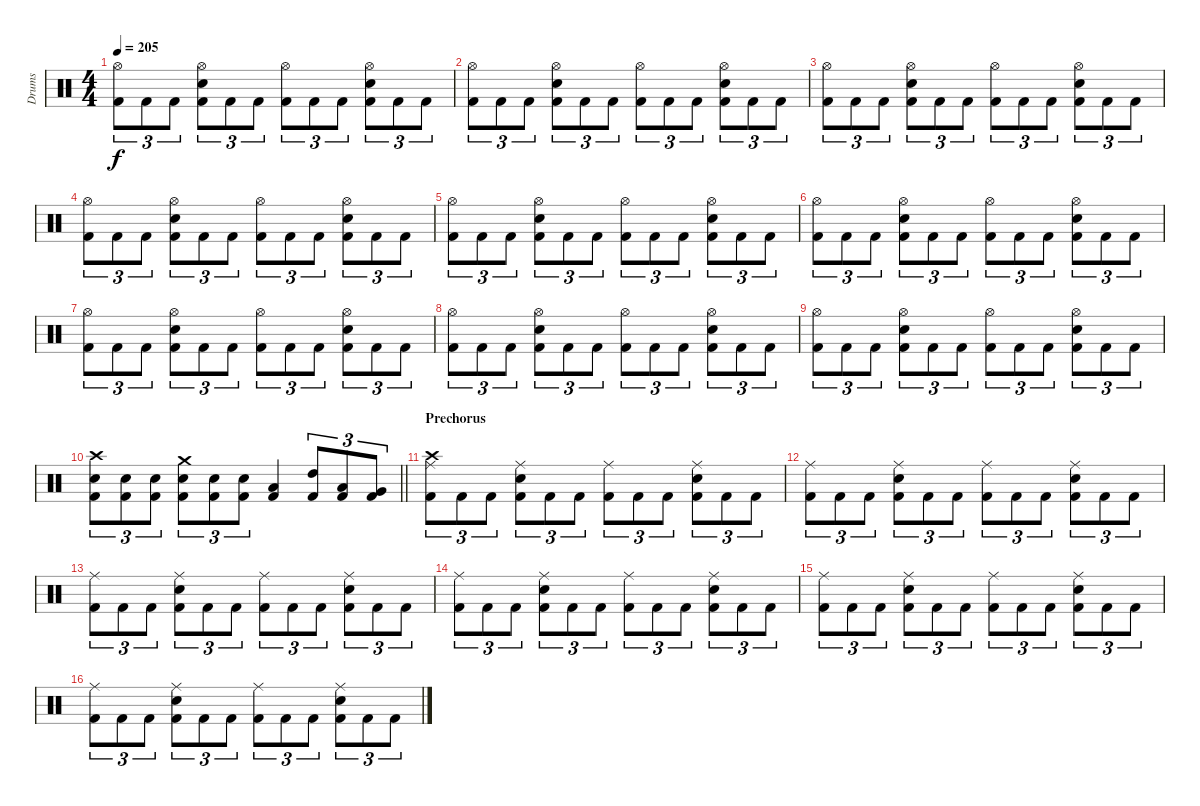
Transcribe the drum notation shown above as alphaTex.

\track ("Drums" "Drums") {instrument percussion}
\staff {score}
\articulation defaults
\ts (4 4)
\tempo 205
\clef neutral
\ks c
("Hi-Hat (open)" "Kick (hit) 2").8{tu (3 2) dy f} "Kick (hit) 2".8{tu (3 2)} "Kick (hit) 2".8{tu (3 2)} ("Hi-Hat (open)" "Snare (hit) 2" "Kick (hit) 2").8{tu (3 2)} "Kick (hit) 2".8{tu (3 2)} "Kick (hit) 2".8{tu (3 2)} ("Hi-Hat (open)" "Kick (hit) 2").8{tu (3 2)} "Kick (hit) 2".8{tu (3 2)} "Kick (hit) 2".8{tu (3 2)} ("Hi-Hat (open)" "Snare (hit) 2" "Kick (hit) 2").8{tu (3 2)} "Kick (hit) 2".8{tu (3 2)} "Kick (hit) 2".8{tu (3 2)} |
("Hi-Hat (open)" "Kick (hit) 2").8{tu (3 2)} "Kick (hit) 2".8{tu (3 2)} "Kick (hit) 2".8{tu (3 2)} ("Hi-Hat (open)" "Snare (hit) 2" "Kick (hit) 2").8{tu (3 2)} "Kick (hit) 2".8{tu (3 2)} "Kick (hit) 2".8{tu (3 2)} ("Hi-Hat (open)" "Kick (hit) 2").8{tu (3 2)} "Kick (hit) 2".8{tu (3 2)} "Kick (hit) 2".8{tu (3 2)} ("Hi-Hat (open)" "Snare (hit) 2" "Kick (hit) 2").8{tu (3 2)} "Kick (hit) 2".8{tu (3 2)} "Kick (hit) 2".8{tu (3 2)} |
("Hi-Hat (open)" "Kick (hit) 2").8{tu (3 2)} "Kick (hit) 2".8{tu (3 2)} "Kick (hit) 2".8{tu (3 2)} ("Hi-Hat (open)" "Snare (hit) 2" "Kick (hit) 2").8{tu (3 2)} "Kick (hit) 2".8{tu (3 2)} "Kick (hit) 2".8{tu (3 2)} ("Hi-Hat (open)" "Kick (hit) 2").8{tu (3 2)} "Kick (hit) 2".8{tu (3 2)} "Kick (hit) 2".8{tu (3 2)} ("Hi-Hat (open)" "Snare (hit) 2" "Kick (hit) 2").8{tu (3 2)} "Kick (hit) 2".8{tu (3 2)} "Kick (hit) 2".8{tu (3 2)} |
("Hi-Hat (open)" "Kick (hit) 2").8{tu (3 2)} "Kick (hit) 2".8{tu (3 2)} "Kick (hit) 2".8{tu (3 2)} ("Hi-Hat (open)" "Snare (hit) 2" "Kick (hit) 2").8{tu (3 2)} "Kick (hit) 2".8{tu (3 2)} "Kick (hit) 2".8{tu (3 2)} ("Hi-Hat (open)" "Kick (hit) 2").8{tu (3 2)} "Kick (hit) 2".8{tu (3 2)} "Kick (hit) 2".8{tu (3 2)} ("Hi-Hat (open)" "Snare (hit) 2" "Kick (hit) 2").8{tu (3 2)} "Kick (hit) 2".8{tu (3 2)} "Kick (hit) 2".8{tu (3 2)} |
("Hi-Hat (open)" "Kick (hit) 2").8{tu (3 2)} "Kick (hit) 2".8{tu (3 2)} "Kick (hit) 2".8{tu (3 2)} ("Hi-Hat (open)" "Snare (hit) 2" "Kick (hit) 2").8{tu (3 2)} "Kick (hit) 2".8{tu (3 2)} "Kick (hit) 2".8{tu (3 2)} ("Hi-Hat (open)" "Kick (hit) 2").8{tu (3 2)} "Kick (hit) 2".8{tu (3 2)} "Kick (hit) 2".8{tu (3 2)} ("Hi-Hat (open)" "Snare (hit) 2" "Kick (hit) 2").8{tu (3 2)} "Kick (hit) 2".8{tu (3 2)} "Kick (hit) 2".8{tu (3 2)} |
("Hi-Hat (open)" "Kick (hit) 2").8{tu (3 2)} "Kick (hit) 2".8{tu (3 2)} "Kick (hit) 2".8{tu (3 2)} ("Hi-Hat (open)" "Snare (hit) 2" "Kick (hit) 2").8{tu (3 2)} "Kick (hit) 2".8{tu (3 2)} "Kick (hit) 2".8{tu (3 2)} ("Hi-Hat (open)" "Kick (hit) 2").8{tu (3 2)} "Kick (hit) 2".8{tu (3 2)} "Kick (hit) 2".8{tu (3 2)} ("Hi-Hat (open)" "Snare (hit) 2" "Kick (hit) 2").8{tu (3 2)} "Kick (hit) 2".8{tu (3 2)} "Kick (hit) 2".8{tu (3 2)} |
("Hi-Hat (open)" "Kick (hit) 2").8{tu (3 2)} "Kick (hit) 2".8{tu (3 2)} "Kick (hit) 2".8{tu (3 2)} ("Hi-Hat (open)" "Snare (hit) 2" "Kick (hit) 2").8{tu (3 2)} "Kick (hit) 2".8{tu (3 2)} "Kick (hit) 2".8{tu (3 2)} ("Hi-Hat (open)" "Kick (hit) 2").8{tu (3 2)} "Kick (hit) 2".8{tu (3 2)} "Kick (hit) 2".8{tu (3 2)} ("Hi-Hat (open)" "Snare (hit) 2" "Kick (hit) 2").8{tu (3 2)} "Kick (hit) 2".8{tu (3 2)} "Kick (hit) 2".8{tu (3 2)} |
("Hi-Hat (open)" "Kick (hit) 2").8{tu (3 2)} "Kick (hit) 2".8{tu (3 2)} "Kick (hit) 2".8{tu (3 2)} ("Hi-Hat (open)" "Snare (hit) 2" "Kick (hit) 2").8{tu (3 2)} "Kick (hit) 2".8{tu (3 2)} "Kick (hit) 2".8{tu (3 2)} ("Hi-Hat (open)" "Kick (hit) 2").8{tu (3 2)} "Kick (hit) 2".8{tu (3 2)} "Kick (hit) 2".8{tu (3 2)} ("Hi-Hat (open)" "Snare (hit) 2" "Kick (hit) 2").8{tu (3 2)} "Kick (hit) 2".8{tu (3 2)} "Kick (hit) 2".8{tu (3 2)} |
("Hi-Hat (open)" "Kick (hit) 2").8{tu (3 2)} "Kick (hit) 2".8{tu (3 2)} "Kick (hit) 2".8{tu (3 2)} ("Hi-Hat (open)" "Snare (hit) 2" "Kick (hit) 2").8{tu (3 2)} "Kick (hit) 2".8{tu (3 2)} "Kick (hit) 2".8{tu (3 2)} ("Hi-Hat (open)" "Kick (hit) 2").8{tu (3 2)} "Kick (hit) 2".8{tu (3 2)} "Kick (hit) 2".8{tu (3 2)} ("Hi-Hat (open)" "Snare (hit) 2" "Kick (hit) 2").8{tu (3 2)} "Kick (hit) 2".8{tu (3 2)} "Kick (hit) 2".8{tu (3 2)} |
\barLineRight lightlight
("Crash high (hit)" "Snare (hit) 2" "Kick (hit) 2").8{tu (3 2)} ("Snare (hit) 2" "Kick (hit) 2").8{tu (3 2)} ("Snare (hit) 2" "Kick (hit) 2").8{tu (3 2)} ("Crash medium (hit)" "Snare (hit) 2" "Kick (hit) 2").8{tu (3 2)} ("Snare (hit) 2" "Kick (hit) 2").8{tu (3 2)} ("Snare (hit) 2" "Kick (hit) 2").8{tu (3 2)} ("Low Floor Tom (hit)" "Kick (hit) 2").4 ("High Tom (hit)" "Kick (hit) 2").8{tu (3 2)} ("Low Tom (hit)" "Kick (hit) 2").8{tu (3 2)} ("Very Low Tom (hit)" "Kick (hit) 2").8{tu (3 2)} |
\section ("" "Prechorus")
("Crash high (hit)" "Ride (middle)" "Kick (hit) 2").8{tu (3 2)} "Kick (hit) 2".8{tu (3 2)} "Kick (hit) 2".8{tu (3 2)} ("Ride (middle)" "Snare (hit) 2" "Kick (hit) 2").8{tu (3 2)} "Kick (hit) 2".8{tu (3 2)} "Kick (hit) 2".8{tu (3 2)} ("Ride (middle)" "Kick (hit) 2").8{tu (3 2)} "Kick (hit) 2".8{tu (3 2)} "Kick (hit) 2".8{tu (3 2)} ("Ride (middle)" "Snare (hit) 2" "Kick (hit) 2").8{tu (3 2)} "Kick (hit) 2".8{tu (3 2)} "Kick (hit) 2".8{tu (3 2)} |
("Ride (middle)" "Kick (hit) 2").8{tu (3 2)} "Kick (hit) 2".8{tu (3 2)} "Kick (hit) 2".8{tu (3 2)} ("Ride (middle)" "Snare (hit) 2" "Kick (hit) 2").8{tu (3 2)} "Kick (hit) 2".8{tu (3 2)} "Kick (hit) 2".8{tu (3 2)} ("Ride (middle)" "Kick (hit) 2").8{tu (3 2)} "Kick (hit) 2".8{tu (3 2)} "Kick (hit) 2".8{tu (3 2)} ("Ride (middle)" "Snare (hit) 2" "Kick (hit) 2").8{tu (3 2)} "Kick (hit) 2".8{tu (3 2)} "Kick (hit) 2".8{tu (3 2)} |
("Ride (middle)" "Kick (hit) 2").8{tu (3 2)} "Kick (hit) 2".8{tu (3 2)} "Kick (hit) 2".8{tu (3 2)} ("Ride (middle)" "Snare (hit) 2" "Kick (hit) 2").8{tu (3 2)} "Kick (hit) 2".8{tu (3 2)} "Kick (hit) 2".8{tu (3 2)} ("Ride (middle)" "Kick (hit) 2").8{tu (3 2)} "Kick (hit) 2".8{tu (3 2)} "Kick (hit) 2".8{tu (3 2)} ("Ride (middle)" "Snare (hit) 2" "Kick (hit) 2").8{tu (3 2)} "Kick (hit) 2".8{tu (3 2)} "Kick (hit) 2".8{tu (3 2)} |
("Ride (middle)" "Kick (hit) 2").8{tu (3 2)} "Kick (hit) 2".8{tu (3 2)} "Kick (hit) 2".8{tu (3 2)} ("Ride (middle)" "Snare (hit) 2" "Kick (hit) 2").8{tu (3 2)} "Kick (hit) 2".8{tu (3 2)} "Kick (hit) 2".8{tu (3 2)} ("Ride (middle)" "Kick (hit) 2").8{tu (3 2)} "Kick (hit) 2".8{tu (3 2)} "Kick (hit) 2".8{tu (3 2)} ("Ride (middle)" "Snare (hit) 2" "Kick (hit) 2").8{tu (3 2)} "Kick (hit) 2".8{tu (3 2)} "Kick (hit) 2".8{tu (3 2)} |
("Ride (middle)" "Kick (hit) 2").8{tu (3 2)} "Kick (hit) 2".8{tu (3 2)} "Kick (hit) 2".8{tu (3 2)} ("Ride (middle)" "Snare (hit) 2" "Kick (hit) 2").8{tu (3 2)} "Kick (hit) 2".8{tu (3 2)} "Kick (hit) 2".8{tu (3 2)} ("Ride (middle)" "Kick (hit) 2").8{tu (3 2)} "Kick (hit) 2".8{tu (3 2)} "Kick (hit) 2".8{tu (3 2)} ("Ride (middle)" "Snare (hit) 2" "Kick (hit) 2").8{tu (3 2)} "Kick (hit) 2".8{tu (3 2)} "Kick (hit) 2".8{tu (3 2)} |
("Ride (middle)" "Kick (hit) 2").8{tu (3 2)} "Kick (hit) 2".8{tu (3 2)} "Kick (hit) 2".8{tu (3 2)} ("Ride (middle)" "Snare (hit) 2" "Kick (hit) 2").8{tu (3 2)} "Kick (hit) 2".8{tu (3 2)} "Kick (hit) 2".8{tu (3 2)} ("Ride (middle)" "Kick (hit) 2").8{tu (3 2)} "Kick (hit) 2".8{tu (3 2)} "Kick (hit) 2".8{tu (3 2)} ("Ride (middle)" "Snare (hit) 2" "Kick (hit) 2").8{tu (3 2)} "Kick (hit) 2".8{tu (3 2)} "Kick (hit) 2".8{tu (3 2)}
